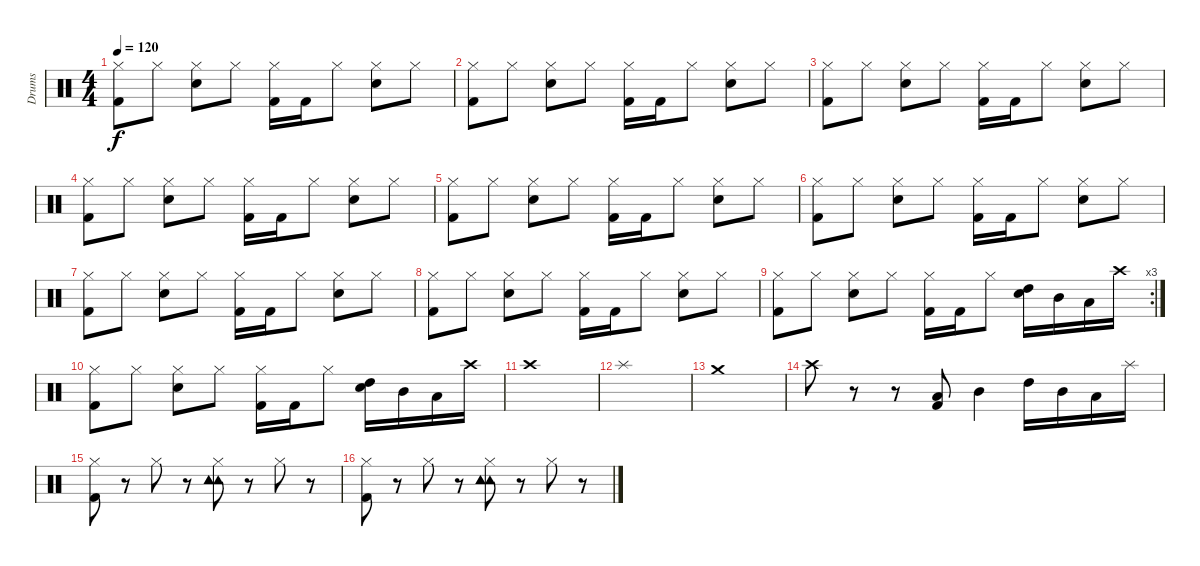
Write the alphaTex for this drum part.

\track ("Drums" "Drums") {instrument percussion}
\staff {score}
\articulation defaults
\ts (4 4)
\tempo 120
\clef neutral
\ks c
("Hi-Hat (closed)" "Kick (hit) 2").8{dy f} "Hi-Hat (closed)".8 ("Hi-Hat (closed)" "Snare (hit) 2").8 "Hi-Hat (closed)".8 ("Hi-Hat (closed)" "Kick (hit) 2").16 "Kick (hit) 2".16 "Hi-Hat (closed)".8 ("Hi-Hat (closed)" "Snare (hit) 2").8 "Hi-Hat (closed)".8 |
("Hi-Hat (closed)" "Kick (hit) 2").8 "Hi-Hat (closed)".8 ("Hi-Hat (closed)" "Snare (hit) 2").8 "Hi-Hat (closed)".8 ("Hi-Hat (closed)" "Kick (hit) 2").16 "Kick (hit) 2".16 "Hi-Hat (closed)".8 ("Hi-Hat (closed)" "Snare (hit) 2").8 "Hi-Hat (closed)".8 |
("Hi-Hat (closed)" "Kick (hit) 2").8 "Hi-Hat (closed)".8 ("Hi-Hat (closed)" "Snare (hit) 2").8 "Hi-Hat (closed)".8 ("Hi-Hat (closed)" "Kick (hit) 2").16 "Kick (hit) 2".16 "Hi-Hat (closed)".8 ("Hi-Hat (closed)" "Snare (hit) 2").8 "Hi-Hat (closed)".8 |
("Hi-Hat (closed)" "Kick (hit) 2").8 "Hi-Hat (closed)".8 ("Hi-Hat (closed)" "Snare (hit) 2").8 "Hi-Hat (closed)".8 ("Hi-Hat (closed)" "Kick (hit) 2").16 "Kick (hit) 2".16 "Hi-Hat (closed)".8 ("Hi-Hat (closed)" "Snare (hit) 2").8 "Hi-Hat (closed)".8 |
("Hi-Hat (closed)" "Kick (hit) 2").8 "Hi-Hat (closed)".8 ("Hi-Hat (closed)" "Snare (hit) 2").8 "Hi-Hat (closed)".8 ("Hi-Hat (closed)" "Kick (hit) 2").16 "Kick (hit) 2".16 "Hi-Hat (closed)".8 ("Hi-Hat (closed)" "Snare (hit) 2").8 "Hi-Hat (closed)".8 |
("Hi-Hat (closed)" "Kick (hit) 2").8 "Hi-Hat (closed)".8 ("Hi-Hat (closed)" "Snare (hit) 2").8 "Hi-Hat (closed)".8 ("Hi-Hat (closed)" "Kick (hit) 2").16 "Kick (hit) 2".16 "Hi-Hat (closed)".8 ("Hi-Hat (closed)" "Snare (hit) 2").8 "Hi-Hat (closed)".8 |
("Hi-Hat (closed)" "Kick (hit) 2").8 "Hi-Hat (closed)".8 ("Hi-Hat (closed)" "Snare (hit) 2").8 "Hi-Hat (closed)".8 ("Hi-Hat (closed)" "Kick (hit) 2").16 "Kick (hit) 2".16 "Hi-Hat (closed)".8 ("Hi-Hat (closed)" "Snare (hit) 2").8 "Hi-Hat (closed)".8 |
("Hi-Hat (closed)" "Kick (hit) 2").8 "Hi-Hat (closed)".8 ("Hi-Hat (closed)" "Snare (hit) 2").8 "Hi-Hat (closed)".8 ("Hi-Hat (closed)" "Kick (hit) 2").16 "Kick (hit) 2".16 "Hi-Hat (closed)".8 ("Hi-Hat (closed)" "Snare (hit) 2").8 "Hi-Hat (closed)".8 |
\rc 3
("Hi-Hat (closed)" "Kick (hit) 2").8 "Hi-Hat (closed)".8 ("Hi-Hat (closed)" "Snare (hit) 2").8 "Hi-Hat (closed)".8 ("Hi-Hat (closed)" "Kick (hit) 2").16 "Kick (hit) 2".16 "Hi-Hat (closed)".8 ("High Tom (hit)" "Snare (hit) 2").16 "Mid Tom (hit)".16 "Low Tom (hit)".16 "Crash high (hit)".16 |
("Hi-Hat (closed)" "Kick (hit) 2").8 "Hi-Hat (closed)".8 ("Hi-Hat (closed)" "Snare (hit) 2").8 "Hi-Hat (closed)".8 ("Hi-Hat (closed)" "Kick (hit) 2").16 "Kick (hit) 2".16 "Hi-Hat (closed)".8 ("High Tom (hit)" "Snare (hit) 2").16 "Mid Tom (hit)".16 "Low Tom (hit)".16 "Crash high (hit)".16 |
"Crash high (hit)".1 |
"Splash (hit)".1 |
"Crash medium (hit)".1 |
"Crash high (hit)".8 r.8 r.8 ("Low Tom (hit)" "Kick (hit) 2").8 "Mid Tom (hit)".4 "High Tom (hit)".16 "Mid Tom (hit)".16 "Low Tom (hit)".16 "Splash (hit)".16 |
("Hi-Hat (closed)" "Kick (hit) 2").8 r.8 "Hi-Hat (closed)".8 r.8 ("Tambourine (hit)" "Tambourine (hit)" "Hi-Hat (closed)" "Tambourine (hit)").8 r.8 "Hi-Hat (closed)".8 r.8 |
("Hi-Hat (closed)" "Kick (hit) 2").8 r.8 "Hi-Hat (closed)".8 r.8 ("Tambourine (hit)" "Tambourine (hit)" "Hi-Hat (closed)" "Tambourine (hit)").8 r.8 "Hi-Hat (closed)".8 r.8
